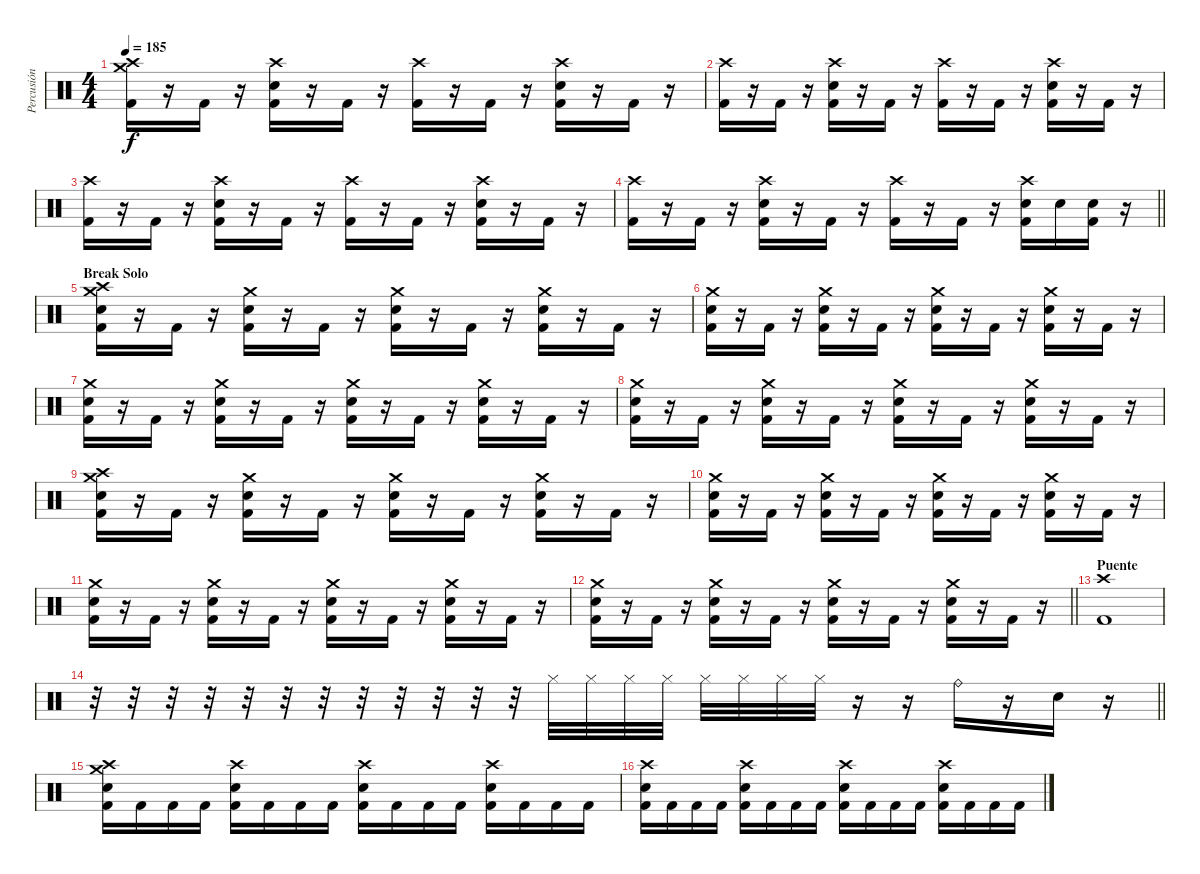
\track ("Percusión" "Percusión") {instrument percussion}
\staff {score}
\articulation defaults
\ts (4 4)
\tempo 185
\clef neutral
\ks c
("Crash high (hit)" "Crash medium (hit)" "Kick (hit) 2").16{dy f} r.16 "Kick (hit) 2".16 r.16 ("Crash high (hit)" "Electric Snare (hit)" "Kick (hit) 2").16 r.16 "Kick (hit) 2".16 r.16 ("Crash high (hit)" "Kick (hit) 2").16 r.16 "Kick (hit) 2".16 r.16 ("Crash high (hit)" "Electric Snare (hit)" "Kick (hit) 2").16 r.16 "Kick (hit) 2".16 r.16 |
("Crash high (hit)" "Kick (hit) 2").16 r.16 "Kick (hit) 2".16 r.16 ("Crash high (hit)" "Electric Snare (hit)" "Kick (hit) 2").16 r.16 "Kick (hit) 2".16 r.16 ("Crash high (hit)" "Kick (hit) 2").16 r.16 "Kick (hit) 2".16 r.16 ("Crash high (hit)" "Electric Snare (hit)" "Kick (hit) 2").16 r.16 "Kick (hit) 2".16 r.16 |
("Crash high (hit)" "Kick (hit) 2").16 r.16 "Kick (hit) 2".16 r.16 ("Crash high (hit)" "Electric Snare (hit)" "Kick (hit) 2").16 r.16 "Kick (hit) 2".16 r.16 ("Crash high (hit)" "Kick (hit) 2").16 r.16 "Kick (hit) 2".16 r.16 ("Crash high (hit)" "Electric Snare (hit)" "Kick (hit) 2").16 r.16 "Kick (hit) 2".16 r.16 |
\barLineRight lightlight
("Crash high (hit)" "Kick (hit) 2").16 r.16 "Kick (hit) 2".16 r.16 ("Crash high (hit)" "Electric Snare (hit)" "Kick (hit) 2").16 r.16 "Kick (hit) 2".16 r.16 ("Crash high (hit)" "Kick (hit) 2").16 r.16 "Kick (hit) 2".16 r.16 ("Crash high (hit)" "Electric Snare (hit)" "Kick (hit) 2").16 "Electric Snare (hit)".16 ("Electric Snare (hit)" "Kick (hit) 2").16 r.16 |
\section ("" "Break Solo")
("Crash high (hit)" "Crash medium (hit)" "Electric Snare (hit)" "Kick (hit) 2").16 r.16 "Kick (hit) 2".16 r.16 ("Crash medium (hit)" "Electric Snare (hit)" "Kick (hit) 2").16 r.16 "Kick (hit) 2".16 r.16 ("Crash medium (hit)" "Electric Snare (hit)" "Kick (hit) 2").16 r.16 "Kick (hit) 2".16 r.16 ("Crash medium (hit)" "Electric Snare (hit)" "Kick (hit) 2").16 r.16 "Kick (hit) 2".16 r.16 |
("Crash medium (hit)" "Electric Snare (hit)" "Kick (hit) 2").16 r.16 "Kick (hit) 2".16 r.16 ("Crash medium (hit)" "Electric Snare (hit)" "Kick (hit) 2").16 r.16 "Kick (hit) 2".16 r.16 ("Crash medium (hit)" "Electric Snare (hit)" "Kick (hit) 2").16 r.16 "Kick (hit) 2".16 r.16 ("Crash medium (hit)" "Electric Snare (hit)" "Kick (hit) 2").16 r.16 "Kick (hit) 2".16 r.16 |
("Crash medium (hit)" "Electric Snare (hit)" "Kick (hit) 2").16 r.16 "Kick (hit) 2".16 r.16 ("Crash medium (hit)" "Electric Snare (hit)" "Kick (hit) 2").16 r.16 "Kick (hit) 2".16 r.16 ("Crash medium (hit)" "Electric Snare (hit)" "Kick (hit) 2").16 r.16 "Kick (hit) 2".16 r.16 ("Crash medium (hit)" "Electric Snare (hit)" "Kick (hit) 2").16 r.16 "Kick (hit) 2".16 r.16 |
("Crash medium (hit)" "Electric Snare (hit)" "Kick (hit) 2").16 r.16 "Kick (hit) 2".16 r.16 ("Crash medium (hit)" "Electric Snare (hit)" "Kick (hit) 2").16 r.16 "Kick (hit) 2".16 r.16 ("Crash medium (hit)" "Electric Snare (hit)" "Kick (hit) 2").16 r.16 "Kick (hit) 2".16 r.16 ("Crash medium (hit)" "Electric Snare (hit)" "Kick (hit) 2").16 r.16 "Kick (hit) 2".16 r.16 |
("Crash high (hit)" "Crash medium (hit)" "Electric Snare (hit)" "Kick (hit) 2").16 r.16 "Kick (hit) 2".16 r.16 ("Crash medium (hit)" "Electric Snare (hit)" "Kick (hit) 2").16 r.16 "Kick (hit) 2".16 r.16 ("Crash medium (hit)" "Electric Snare (hit)" "Kick (hit) 2").16 r.16 "Kick (hit) 2".16 r.16 ("Crash medium (hit)" "Electric Snare (hit)" "Kick (hit) 2").16 r.16 "Kick (hit) 2".16 r.16 |
("Crash medium (hit)" "Electric Snare (hit)" "Kick (hit) 2").16 r.16 "Kick (hit) 2".16 r.16 ("Crash medium (hit)" "Electric Snare (hit)" "Kick (hit) 2").16 r.16 "Kick (hit) 2".16 r.16 ("Crash medium (hit)" "Electric Snare (hit)" "Kick (hit) 2").16 r.16 "Kick (hit) 2".16 r.16 ("Crash medium (hit)" "Electric Snare (hit)" "Kick (hit) 2").16 r.16 "Kick (hit) 2".16 r.16 |
("Crash medium (hit)" "Electric Snare (hit)" "Kick (hit) 2").16 r.16 "Kick (hit) 2".16 r.16 ("Crash medium (hit)" "Electric Snare (hit)" "Kick (hit) 2").16 r.16 "Kick (hit) 2".16 r.16 ("Crash medium (hit)" "Electric Snare (hit)" "Kick (hit) 2").16 r.16 "Kick (hit) 2".16 r.16 ("Crash medium (hit)" "Electric Snare (hit)" "Kick (hit) 2").16 r.16 "Kick (hit) 2".16 r.16 |
\barLineRight lightlight
("Crash medium (hit)" "Electric Snare (hit)" "Kick (hit) 2").16 r.16 "Kick (hit) 2".16 r.16 ("Crash medium (hit)" "Electric Snare (hit)" "Kick (hit) 2").16 r.16 "Kick (hit) 2".16 r.16 ("Crash medium (hit)" "Electric Snare (hit)" "Kick (hit) 2").16 r.16 "Kick (hit) 2".16 r.16 ("Crash medium (hit)" "Electric Snare (hit)" "Kick (hit) 2").16 r.16 "Kick (hit) 2".16 r.16 |
\section ("" "Puente")
("Crash high (hit)" "Kick (hit) 2").1 |
\barLineRight lightlight
r.32 r.32 r.32 r.32 r.32 r.32 r.32 r.32 r.32 r.32 r.32 r.32 "Hi-Hat (closed)".32{volume 4} "Hi-Hat (closed)".32{volume 4} "Hi-Hat (closed)".32{volume 8} "Hi-Hat (closed)".32{volume 8} "Hi-Hat (closed)".32{volume 12} "Hi-Hat (closed)".32{volume 12} "Hi-Hat (closed)".32 "Hi-Hat (closed)".32 r.16 r.16 "Ride (bell)".16{volume 16} r.16 "Electric Snare (hit)".16 r.16 |
("Crash high (hit)" "Crash medium (hit)" "Electric Snare (hit)" "Kick (hit) 2").16 "Kick (hit) 2".16 "Kick (hit) 2".16 "Kick (hit) 2".16 ("Crash high (hit)" "Electric Snare (hit)" "Kick (hit) 2").16 "Kick (hit) 2".16 "Kick (hit) 2".16 "Kick (hit) 2".16 ("Crash high (hit)" "Electric Snare (hit)" "Kick (hit) 2").16 "Kick (hit) 2".16 "Kick (hit) 2".16 "Kick (hit) 2".16 ("Crash high (hit)" "Electric Snare (hit)" "Kick (hit) 2").16 "Kick (hit) 2".16 "Kick (hit) 2".16 "Kick (hit) 2".16 |
("Crash high (hit)" "Electric Snare (hit)" "Kick (hit) 2").16 "Kick (hit) 2".16 "Kick (hit) 2".16 "Kick (hit) 2".16 ("Crash high (hit)" "Electric Snare (hit)" "Kick (hit) 2").16 "Kick (hit) 2".16 "Kick (hit) 2".16 "Kick (hit) 2".16 ("Crash high (hit)" "Electric Snare (hit)" "Kick (hit) 2").16 "Kick (hit) 2".16 "Kick (hit) 2".16 "Kick (hit) 2".16 ("Crash high (hit)" "Electric Snare (hit)" "Kick (hit) 2").16 "Kick (hit) 2".16 "Kick (hit) 2".16 "Kick (hit) 2".16
